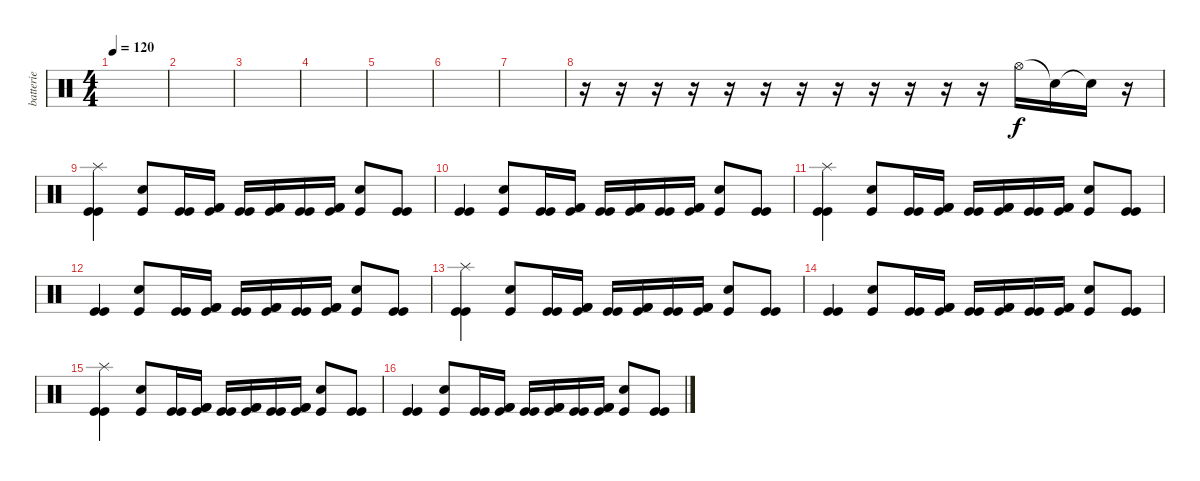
\track ("batterie" "batterie") {instrument percussion}
\staff {score}
\articulation defaults
\ts (4 4)
\tempo 120
\clef neutral
\ks c
|
|
|
|
|
|
|
r.16 r.16 r.16 r.16 r.16 r.16 r.16 r.16 r.16 r.16 r.16 r.16 "Hi-Hat (open)".16 "Snare (hit) 2"{t}.16 "Snare (hit) 2"{t}.16 r.16 |
("Kick (hit)" "Splash (hit)" "Kick (hit)").4 ("Snare (hit) 2" "Kick (hit)").8 ("Kick (hit)" "Kick (hit)").16 ("Kick (hit) 2" "Kick (hit) 2" "Kick (hit)").16 ("Kick (hit)" "Kick (hit)").16 ("Kick (hit) 2" "Kick (hit) 2" "Kick (hit)").16 ("Kick (hit)" "Kick (hit)").16 ("Kick (hit) 2" "Kick (hit) 2" "Kick (hit)").16 ("Snare (hit) 2" "Kick (hit)").8 ("Kick (hit)" "Kick (hit)").8 |
("Kick (hit)" "Kick (hit)").4 ("Snare (hit) 2" "Kick (hit)").8 ("Kick (hit)" "Kick (hit)").16 ("Kick (hit) 2" "Kick (hit) 2" "Kick (hit)").16 ("Kick (hit)" "Kick (hit)").16 ("Kick (hit) 2" "Kick (hit) 2" "Kick (hit)").16 ("Kick (hit)" "Kick (hit)").16 ("Kick (hit) 2" "Kick (hit) 2" "Kick (hit)").16 ("Snare (hit) 2" "Kick (hit)").8 ("Kick (hit)" "Kick (hit)").8 |
("Kick (hit)" "Splash (hit)" "Kick (hit)").4 ("Snare (hit) 2" "Kick (hit)").8 ("Kick (hit)" "Kick (hit)").16 ("Kick (hit) 2" "Kick (hit) 2" "Kick (hit)").16 ("Kick (hit)" "Kick (hit)").16 ("Kick (hit) 2" "Kick (hit) 2" "Kick (hit)").16 ("Kick (hit)" "Kick (hit)").16 ("Kick (hit) 2" "Kick (hit) 2" "Kick (hit)").16 ("Snare (hit) 2" "Kick (hit)").8 ("Kick (hit)" "Kick (hit)").8 |
("Kick (hit)" "Kick (hit)").4 ("Snare (hit) 2" "Kick (hit)").8 ("Kick (hit)" "Kick (hit)").16 ("Kick (hit) 2" "Kick (hit) 2" "Kick (hit)").16 ("Kick (hit)" "Kick (hit)").16 ("Kick (hit) 2" "Kick (hit) 2" "Kick (hit)").16 ("Kick (hit)" "Kick (hit)").16 ("Kick (hit) 2" "Kick (hit) 2" "Kick (hit)").16 ("Snare (hit) 2" "Kick (hit)").8 ("Kick (hit)" "Kick (hit)").8 |
("Kick (hit)" "Splash (hit)" "Kick (hit)").4 ("Snare (hit) 2" "Kick (hit)").8 ("Kick (hit)" "Kick (hit)").16 ("Kick (hit) 2" "Kick (hit) 2" "Kick (hit)").16 ("Kick (hit)" "Kick (hit)").16 ("Kick (hit) 2" "Kick (hit) 2" "Kick (hit)").16 ("Kick (hit)" "Kick (hit)").16 ("Kick (hit) 2" "Kick (hit) 2" "Kick (hit)").16 ("Snare (hit) 2" "Kick (hit)").8 ("Kick (hit)" "Kick (hit)").8 |
("Kick (hit)" "Kick (hit)").4 ("Snare (hit) 2" "Kick (hit)").8 ("Kick (hit)" "Kick (hit)").16 ("Kick (hit) 2" "Kick (hit) 2" "Kick (hit)").16 ("Kick (hit)" "Kick (hit)").16 ("Kick (hit) 2" "Kick (hit) 2" "Kick (hit)").16 ("Kick (hit)" "Kick (hit)").16 ("Kick (hit) 2" "Kick (hit) 2" "Kick (hit)").16 ("Snare (hit) 2" "Kick (hit)").8 ("Kick (hit)" "Kick (hit)").8 |
("Kick (hit)" "Splash (hit)" "Kick (hit)").4 ("Snare (hit) 2" "Kick (hit)").8 ("Kick (hit)" "Kick (hit)").16 ("Kick (hit) 2" "Kick (hit) 2" "Kick (hit)").16 ("Kick (hit)" "Kick (hit)").16 ("Kick (hit) 2" "Kick (hit) 2" "Kick (hit)").16 ("Kick (hit)" "Kick (hit)").16 ("Kick (hit) 2" "Kick (hit) 2" "Kick (hit)").16 ("Snare (hit) 2" "Kick (hit)").8 ("Kick (hit)" "Kick (hit)").8 |
("Kick (hit)" "Kick (hit)").4 ("Snare (hit) 2" "Kick (hit)").8 ("Kick (hit)" "Kick (hit)").16 ("Kick (hit) 2" "Kick (hit) 2" "Kick (hit)").16 ("Kick (hit)" "Kick (hit)").16 ("Kick (hit) 2" "Kick (hit) 2" "Kick (hit)").16 ("Kick (hit)" "Kick (hit)").16 ("Kick (hit) 2" "Kick (hit) 2" "Kick (hit)").16 ("Snare (hit) 2" "Kick (hit)").8 ("Kick (hit)" "Kick (hit)").8
